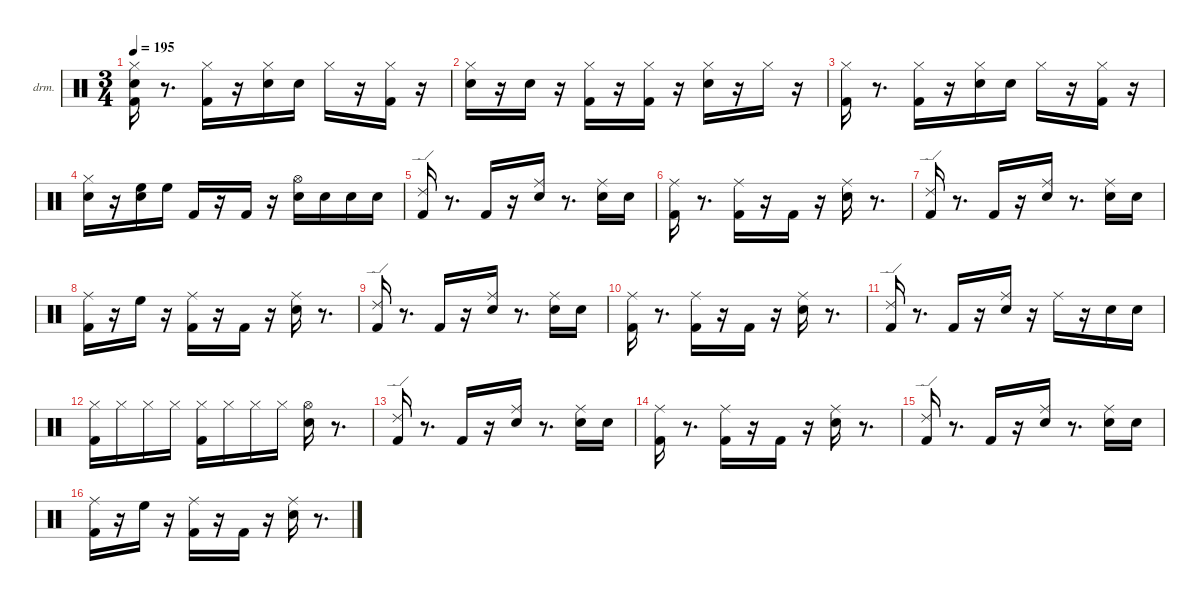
\hideDynamics
\bracketExtendMode nobrackets
\firstSystemTrackNameOrientation horizontal
\otherSystemsTrackNameOrientation horizontal
\track ("EZdrummer 3" "drm.") {instrument percussion}
\staff {score}
\articulation defaults
\ts (3 4)
\tempo 195
\clef neutral
\ks aminor
("Kick (hit) 2" "Snare (hit) 2" "Hi-Hat (closed)"{acc #}).16{dy fff beam Down} r.8{d beam Down} ("Kick (hit) 2" "Hi-Hat (closed)"{acc #}).16{dy mp beam Down} r.16{beam Down} ("Snare (hit) 2" "Hi-Hat (closed)"{acc #}).16{dy f beam Down} "Snare (hit) 2".16{dy pp beam Down} "Hi-Hat (closed)"{acc #}.16{dy ppp beam Down} r.16{beam Down} ("Kick (hit) 2" "Hi-Hat (closed)"{acc #}).16{dy f beam Down} r.16{beam Down} |
("Snare (hit) 2" "Hi-Hat (closed)"{acc #}).16{dy ff beam Down} r.16{beam Down} "Snare (hit) 2".16{dy ppp beam Down} r.16{beam Down} ("Kick (hit) 2" "Hi-Hat (closed)"{acc #}).16{beam Down} r.16{beam Down} ("Kick (hit) 2" "Hi-Hat (closed)"{acc #}).16{dy ff beam Down} r.16{beam Down} ("Snare (hit) 2" "Hi-Hat (closed)"{acc #}).16{dy f beam Down} r.16{beam Down} "Hi-Hat (closed)"{acc #}.16{dy ppp beam Down} r.16{beam Down} |
("Kick (hit) 2" "Hi-Hat (closed)"{acc #}).16{dy ff beam Down} r.8{d beam Down} ("Kick (hit) 2" "Hi-Hat (closed)"{acc #}).16{dy mf beam Down} r.16{beam Down} ("Snare (hit) 2" "Hi-Hat (closed)"{acc #}).16{dy f beam Down} "Snare (hit) 2".16{dy pp beam Down} "Hi-Hat (closed)"{acc #}.16{dy ppp beam Down} r.16{beam Down} ("Kick (hit) 2" "Hi-Hat (closed)"{acc #}).16{dy f beam Down} r.16{beam Down} |
("Snare (hit) 2" "Hi-Hat (closed)"{acc #}).16{dy ff beam Down} r.16{beam Down} ("Snare (hit) 2" "High Floor Tom (hit)").16{dy ppp beam Down} "High Floor Tom (hit)".16{dy mf beam Down} "Kick (hit) 2".16{beam Up} r.16{beam Up} "Kick (hit) 2".16{dy ff beam Up} r.16{beam Up} ("Snare (hit) 2" "Hi-Hat (open)"{acc #}).16{beam Down} "Snare (hit) 2".16{dy pp beam Down} "Snare (hit) 2".16{dy ppp beam Down} "Snare (hit) 2".16{beam Down} |
("Kick (hit) 2" "Ride (edge) 2").16{dy f beam Up} r.8{d beam Up} "Kick (hit) 2".16{beam Up} r.16{beam Up} ("Snare (hit) 2" "Ride (middle)"{acc #}).16{beam Down} r.8{d beam Down} ("Snare (hit) 2" "Ride (middle)"{acc #}).16{dy mf beam Down} "Snare (hit) 2".16{dy mp beam Down} |
("Kick (hit) 2" "Ride (middle)"{acc #}).16{dy fff beam Down} r.8{d beam Down} ("Kick (hit) 2" "Ride (middle)"{acc #}).16{dy mp beam Down} r.16{beam Down} "Kick (hit) 2".16{dy f beam Up} r.16{beam Up} ("Snare (hit) 2" "Ride (middle)"{acc #}).16{dy fff beam Down} r.8{d beam Down} |
("Kick (hit) 2" "Ride (edge) 2").16{dy f beam Up} r.8{d beam Up} "Kick (hit) 2".16{dy ff beam Up} r.16{beam Up} ("Snare (hit) 2" "Ride (middle)"{acc #}).16{dy f beam Down} r.8{d beam Down} ("Snare (hit) 2" "Ride (middle)"{acc #}).16{beam Down} "Snare (hit) 2".16{dy mp beam Down} |
("Kick (hit) 2" "Ride (middle)"{acc #}).16{dy ff beam Down} r.16{beam Down} "High Floor Tom (hit)".16{dy fff beam Down} r.16{beam Down} ("Kick (hit) 2" "Ride (middle)"{acc #}).16{dy ppp beam Down} r.16{beam Down} "Kick (hit) 2".16{dy f beam Up} r.16{beam Up} ("Snare (hit) 2" "Ride (middle)"{acc #}).16{dy ff beam Down} r.8{d beam Down} |
("Kick (hit) 2" "Ride (edge) 2").16{beam Up} r.8{d beam Up} "Kick (hit) 2".16{dy f beam Up} r.16{beam Up} ("Snare (hit) 2" "Ride (middle)"{acc #}).16{beam Down} r.8{d beam Down} ("Snare (hit) 2" "Ride (middle)"{acc #}).16{dy mf beam Down} "Snare (hit) 2".16{dy mp beam Down} |
("Kick (hit) 2" "Ride (middle)"{acc #}).16{dy fff beam Down} r.8{d beam Down} ("Kick (hit) 2" "Ride (middle)"{acc #}).16{dy f beam Down} r.16{beam Down} "Kick (hit) 2".16{beam Up} r.16{beam Up} ("Snare (hit) 2" "Ride (middle)"{acc #}).16{dy fff beam Down} r.8{d beam Down} |
("Kick (hit) 2" "Ride (edge) 2").16{dy ff beam Up} r.8{d beam Up} "Kick (hit) 2".16{beam Up} r.16{beam Up} ("Snare (hit) 2" "Ride (middle)"{acc #}).16{dy f beam Down} r.16{beam Down} "Ride (middle)"{acc #}.16{dy fff beam Down} r.16{beam Down} "Snare (hit) 2".16{dy f beam Down} "Snare (hit) 2".16{dy mp beam Down} |
("Kick (hit) 2" "Hi-Hat (closed)"{acc #}).16{dy ff beam Down} "Hi-Hat (closed)"{acc #}.16{dy ppp beam Down} "Hi-Hat (closed)"{acc #}.16{dy mf beam Down} "Hi-Hat (closed)"{acc #}.16{dy p beam Down} ("Kick (hit) 2" "Hi-Hat (closed)"{acc #}).16{dy ppp beam Down} "Hi-Hat (closed)"{acc #}.16{beam Down} "Hi-Hat (closed)"{acc #}.16{dy mf beam Down} "Hi-Hat (closed)"{acc #}.16{dy mp beam Down} ("Snare (hit) 2" "Hi-Hat (open)"{acc #}).16{dy fff beam Down} r.8{d beam Down} |
("Kick (hit) 2" "Ride (edge) 2").16{dy ff beam Up} r.8{d beam Up} "Kick (hit) 2".16{dy f beam Up} r.16{beam Up} ("Snare (hit) 2" "Ride (middle)"{acc #}).16{beam Down} r.8{d beam Down} ("Snare (hit) 2" "Ride (middle)"{acc #}).16{dy mf beam Down} "Snare (hit) 2".16{dy mp beam Down} |
("Kick (hit) 2" "Ride (middle)"{acc #}).16{dy fff beam Down} r.8{d beam Down} ("Kick (hit) 2" "Ride (middle)"{acc #}).16{dy mp beam Down} r.16{beam Down} "Kick (hit) 2".16{dy f beam Up} r.16{beam Up} ("Snare (hit) 2" "Ride (middle)"{acc #}).16{dy fff beam Down} r.8{d beam Down} |
("Kick (hit) 2" "Ride (edge) 2").16{dy ff beam Up} r.8{d beam Up} "Kick (hit) 2".16{beam Up} r.16{beam Up} ("Snare (hit) 2" "Ride (middle)"{acc #}).16{dy f beam Down} r.8{d beam Down} ("Snare (hit) 2" "Ride (middle)"{acc #}).16{beam Down} "Snare (hit) 2".16{dy mp beam Down} |
("Kick (hit) 2" "Ride (middle)"{acc #}).16{dy ff beam Down} r.16{beam Down} "High Floor Tom (hit)".16{dy fff beam Down} r.16{beam Down} ("Kick (hit) 2" "Ride (middle)"{acc #}).16{dy f beam Down} r.16{beam Down} "Kick (hit) 2".16{beam Up} r.16{beam Up} ("Snare (hit) 2" "Ride (middle)"{acc #}).16{dy mf beam Down} r.8{d beam Down}
